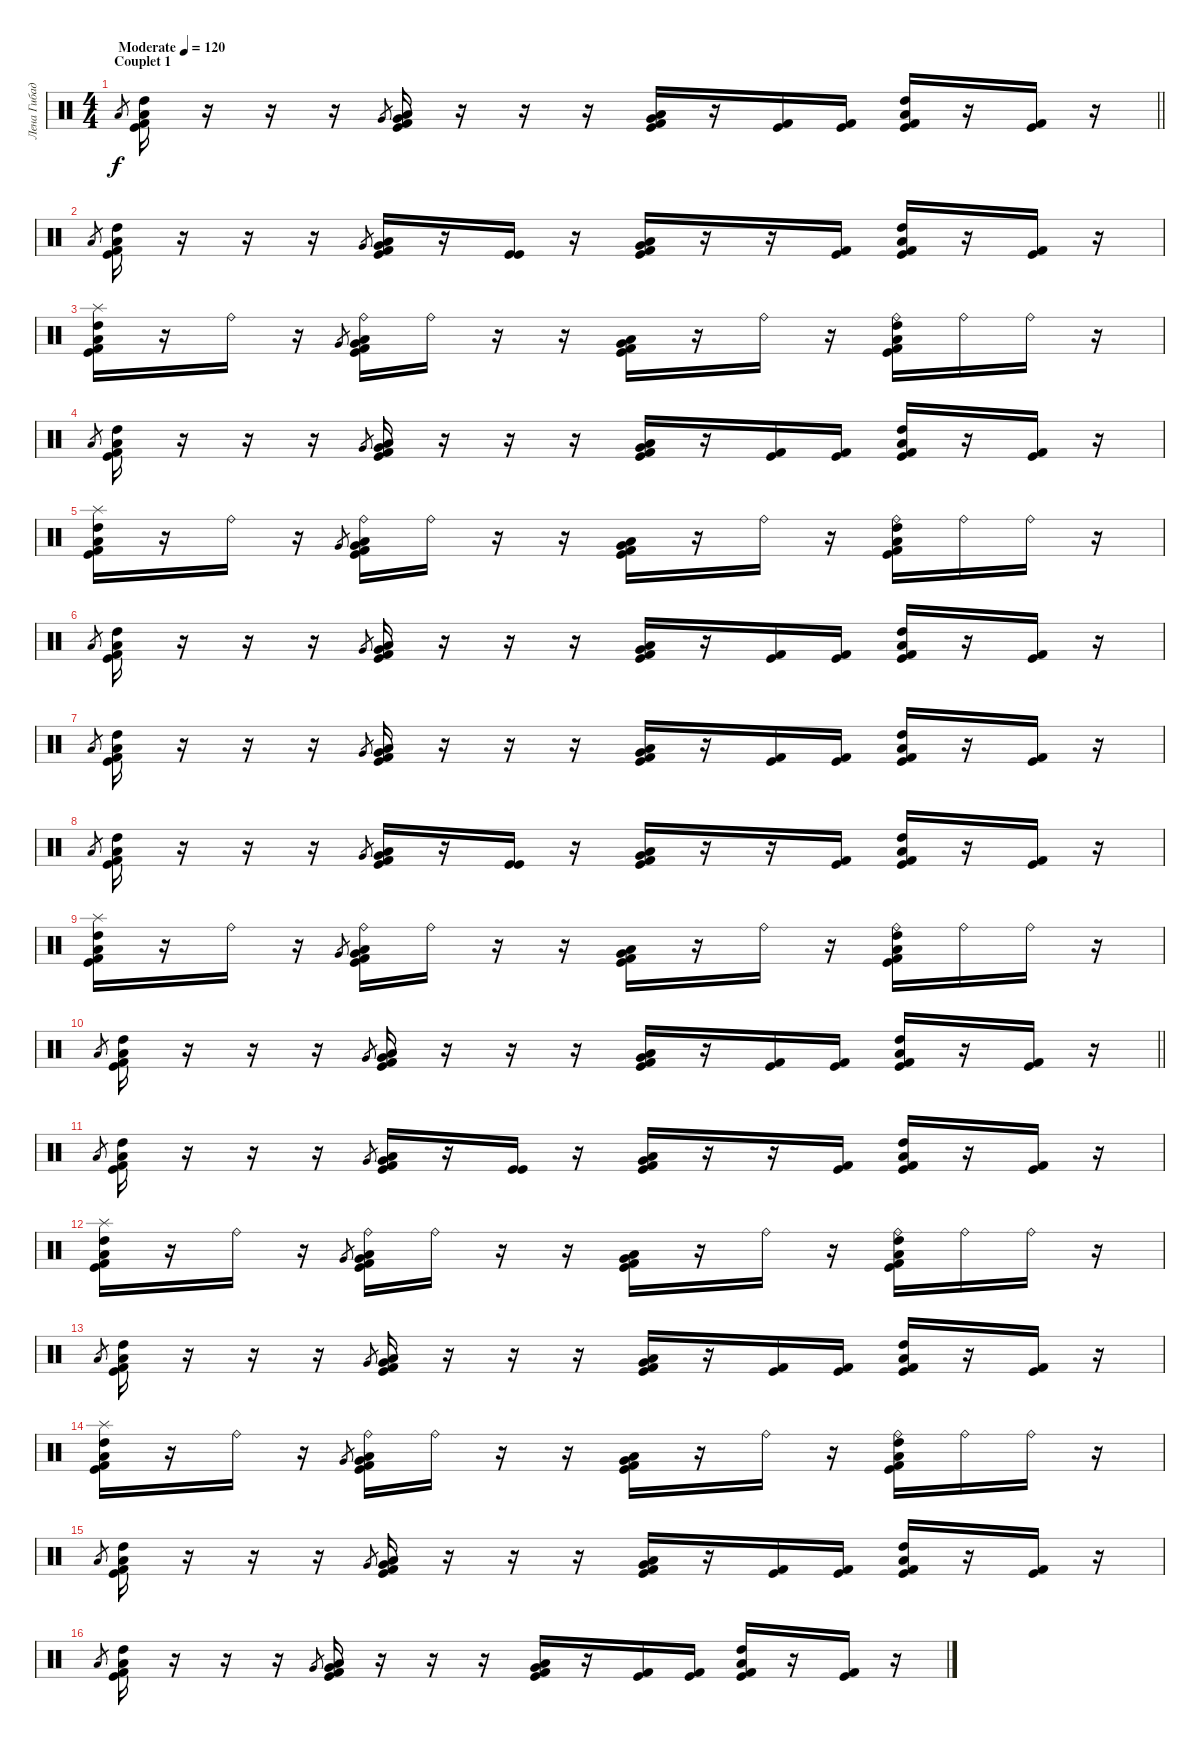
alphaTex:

\track ("Лена Гибадулина" "Лена Гибад") {instrument percussion}
\staff {score}
\articulation defaults
\ts (4 4)
\section ("" "Couplet 1")
\tempo (120 "Moderate")
\clef neutral
\barLineRight lightlight
\ks c "Low Tom (hit)".8{gr dy f}
("Kick (hit)" "Kick (hit) 2" "High Tom (hit)" "Low Tom (hit)").16 r.16 r.16 r.16 "Very Low Tom (hit)".8{gr} ("Kick (hit)" "Kick (hit) 2" "Very Low Tom (hit)" "Low Tom (hit)").16 r.16 r.16 r.16 ("Kick (hit)" "Kick (hit) 2" "Low Floor Tom (hit)" "Very Low Tom (hit)").16 r.16 ("Kick (hit)" "Kick (hit) 2").16 ("Kick (hit)" "Kick (hit) 2").16 ("Kick (hit)" "Kick (hit) 2" "Low Tom (hit)" "High Tom (hit)").16 r.16 ("Kick (hit)" "Kick (hit) 2").16 r.16 |
"Low Tom (hit)".8{gr} ("Kick (hit)" "Kick (hit) 2" "High Tom (hit)" "Low Tom (hit)").16 r.16 r.16 r.16 "Very Low Tom (hit)".8{gr} ("Kick (hit)" "Kick (hit) 2" "Very Low Tom (hit)" "Low Tom (hit)").16 r.16 ("Kick (hit)" "Kick (hit)").16 r.16 ("Kick (hit)" "Kick (hit) 2" "Low Floor Tom (hit)" "Very Low Tom (hit)").16 r.16 r.16 ("Kick (hit) 2" "Kick (hit)").16 ("Kick (hit)" "Kick (hit) 2" "Low Tom (hit)" "High Tom (hit)").16 r.16 ("Kick (hit)" "Kick (hit) 2").16 r.16 |
("Splash (hit)" "Kick (hit)" "Kick (hit) 2" "High Tom (hit)" "Low Tom (hit)").16 r.16 "Ride (bell)".16 r.16 "Very Low Tom (hit)".8{gr} ("Ride (bell)" "Kick (hit)" "Kick (hit) 2" "Very Low Tom (hit)" "Low Tom (hit)").16 "Ride (bell)".16 r.16 r.16 ("Kick (hit)" "Kick (hit) 2" "Low Floor Tom (hit)" "Very Low Tom (hit)").16 r.16 "Ride (bell)".16 r.16 ("Ride (bell)" "Kick (hit)" "Kick (hit) 2" "Low Tom (hit)" "High Tom (hit)").16 "Ride (bell)".16 "Ride (bell)".16 r.16 |
"Low Tom (hit)".8{gr} ("Kick (hit)" "Kick (hit) 2" "High Tom (hit)" "Low Tom (hit)").16 r.16 r.16 r.16 "Very Low Tom (hit)".8{gr} ("Kick (hit)" "Kick (hit) 2" "Very Low Tom (hit)" "Low Tom (hit)").16 r.16 r.16 r.16 ("Kick (hit)" "Kick (hit) 2" "Low Floor Tom (hit)" "Very Low Tom (hit)").16 r.16 ("Kick (hit)" "Kick (hit) 2").16 ("Kick (hit)" "Kick (hit) 2").16 ("Kick (hit)" "Kick (hit) 2" "Low Tom (hit)" "High Tom (hit)").16 r.16 ("Kick (hit)" "Kick (hit) 2").16 r.16 |
("Splash (hit)" "Kick (hit)" "Kick (hit) 2" "High Tom (hit)" "Low Tom (hit)").16 r.16 "Ride (bell)".16 r.16 "Very Low Tom (hit)".8{gr} ("Ride (bell)" "Kick (hit)" "Kick (hit) 2" "Very Low Tom (hit)" "Low Tom (hit)").16 "Ride (bell)".16 r.16 r.16 ("Kick (hit)" "Kick (hit) 2" "Low Floor Tom (hit)" "Very Low Tom (hit)").16 r.16 "Ride (bell)".16 r.16 ("Ride (bell)" "Kick (hit)" "Kick (hit) 2" "Low Tom (hit)" "High Tom (hit)").16 "Ride (bell)".16 "Ride (bell)".16 r.16 |
"Low Tom (hit)".8{gr} ("Kick (hit)" "Kick (hit) 2" "High Tom (hit)" "Low Tom (hit)").16 r.16 r.16 r.16 "Very Low Tom (hit)".8{gr} ("Kick (hit)" "Kick (hit) 2" "Very Low Tom (hit)" "Low Tom (hit)").16 r.16 r.16 r.16 ("Kick (hit)" "Kick (hit) 2" "Low Floor Tom (hit)" "Very Low Tom (hit)").16 r.16 ("Kick (hit)" "Kick (hit) 2").16 ("Kick (hit)" "Kick (hit) 2").16 ("Kick (hit)" "Kick (hit) 2" "Low Tom (hit)" "High Tom (hit)").16 r.16 ("Kick (hit)" "Kick (hit) 2").16 r.16 |
"Low Tom (hit)".8{gr} ("Kick (hit)" "Kick (hit) 2" "High Tom (hit)" "Low Tom (hit)").16 r.16 r.16 r.16 "Very Low Tom (hit)".8{gr} ("Kick (hit)" "Kick (hit) 2" "Very Low Tom (hit)" "Low Tom (hit)").16 r.16 r.16 r.16 ("Kick (hit)" "Kick (hit) 2" "Low Floor Tom (hit)" "Very Low Tom (hit)").16 r.16 ("Kick (hit)" "Kick (hit) 2").16 ("Kick (hit)" "Kick (hit) 2").16 ("Kick (hit)" "Kick (hit) 2" "Low Tom (hit)" "High Tom (hit)").16 r.16 ("Kick (hit)" "Kick (hit) 2").16 r.16 |
"Low Tom (hit)".8{gr} ("Kick (hit)" "Kick (hit) 2" "High Tom (hit)" "Low Tom (hit)").16 r.16 r.16 r.16 "Very Low Tom (hit)".8{gr} ("Kick (hit)" "Kick (hit) 2" "Very Low Tom (hit)" "Low Tom (hit)").16 r.16 ("Kick (hit)" "Kick (hit)").16 r.16 ("Kick (hit)" "Kick (hit) 2" "Low Floor Tom (hit)" "Very Low Tom (hit)").16 r.16 r.16 ("Kick (hit) 2" "Kick (hit)").16 ("Kick (hit)" "Kick (hit) 2" "Low Tom (hit)" "High Tom (hit)").16 r.16 ("Kick (hit)" "Kick (hit) 2").16 r.16 |
("Splash (hit)" "Kick (hit)" "Kick (hit) 2" "High Tom (hit)" "Low Tom (hit)").16 r.16 "Ride (bell)".16 r.16 "Very Low Tom (hit)".8{gr} ("Ride (bell)" "Kick (hit)" "Kick (hit) 2" "Very Low Tom (hit)" "Low Tom (hit)").16 "Ride (bell)".16 r.16 r.16 ("Kick (hit)" "Kick (hit) 2" "Low Floor Tom (hit)" "Very Low Tom (hit)").16 r.16 "Ride (bell)".16 r.16 ("Ride (bell)" "Kick (hit)" "Kick (hit) 2" "Low Tom (hit)" "High Tom (hit)").16 "Ride (bell)".16 "Ride (bell)".16 r.16 |
\barLineRight lightlight "Low Tom (hit)".8{gr}
("Kick (hit)" "Kick (hit) 2" "High Tom (hit)" "Low Tom (hit)").16 r.16 r.16 r.16 "Very Low Tom (hit)".8{gr} ("Kick (hit)" "Kick (hit) 2" "Very Low Tom (hit)" "Low Tom (hit)").16 r.16 r.16 r.16 ("Kick (hit)" "Kick (hit) 2" "Low Floor Tom (hit)" "Very Low Tom (hit)").16 r.16 ("Kick (hit)" "Kick (hit) 2").16 ("Kick (hit)" "Kick (hit) 2").16 ("Kick (hit)" "Kick (hit) 2" "Low Tom (hit)" "High Tom (hit)").16 r.16 ("Kick (hit)" "Kick (hit) 2").16 r.16 |
"Low Tom (hit)".8{gr} ("Kick (hit)" "Kick (hit) 2" "High Tom (hit)" "Low Tom (hit)").16 r.16 r.16 r.16 "Very Low Tom (hit)".8{gr} ("Kick (hit)" "Kick (hit) 2" "Very Low Tom (hit)" "Low Tom (hit)").16 r.16 ("Kick (hit)" "Kick (hit)").16 r.16 ("Kick (hit)" "Kick (hit) 2" "Low Floor Tom (hit)" "Very Low Tom (hit)").16 r.16 r.16 ("Kick (hit) 2" "Kick (hit)").16 ("Kick (hit)" "Kick (hit) 2" "Low Tom (hit)" "High Tom (hit)").16 r.16 ("Kick (hit)" "Kick (hit) 2").16 r.16 |
("Splash (hit)" "Kick (hit)" "Kick (hit) 2" "High Tom (hit)" "Low Tom (hit)").16 r.16 "Ride (bell)".16 r.16 "Very Low Tom (hit)".8{gr} ("Ride (bell)" "Kick (hit)" "Kick (hit) 2" "Very Low Tom (hit)" "Low Tom (hit)").16 "Ride (bell)".16 r.16 r.16 ("Kick (hit)" "Kick (hit) 2" "Low Floor Tom (hit)" "Very Low Tom (hit)").16 r.16 "Ride (bell)".16 r.16 ("Ride (bell)" "Kick (hit)" "Kick (hit) 2" "Low Tom (hit)" "High Tom (hit)").16 "Ride (bell)".16 "Ride (bell)".16 r.16 |
"Low Tom (hit)".8{gr} ("Kick (hit)" "Kick (hit) 2" "High Tom (hit)" "Low Tom (hit)").16 r.16 r.16 r.16 "Very Low Tom (hit)".8{gr} ("Kick (hit)" "Kick (hit) 2" "Very Low Tom (hit)" "Low Tom (hit)").16 r.16 r.16 r.16 ("Kick (hit)" "Kick (hit) 2" "Low Floor Tom (hit)" "Very Low Tom (hit)").16 r.16 ("Kick (hit)" "Kick (hit) 2").16 ("Kick (hit)" "Kick (hit) 2").16 ("Kick (hit)" "Kick (hit) 2" "Low Tom (hit)" "High Tom (hit)").16 r.16 ("Kick (hit)" "Kick (hit) 2").16 r.16 |
("Splash (hit)" "Kick (hit)" "Kick (hit) 2" "High Tom (hit)" "Low Tom (hit)").16 r.16 "Ride (bell)".16 r.16 "Very Low Tom (hit)".8{gr} ("Ride (bell)" "Kick (hit)" "Kick (hit) 2" "Very Low Tom (hit)" "Low Tom (hit)").16 "Ride (bell)".16 r.16 r.16 ("Kick (hit)" "Kick (hit) 2" "Low Floor Tom (hit)" "Very Low Tom (hit)").16 r.16 "Ride (bell)".16 r.16 ("Ride (bell)" "Kick (hit)" "Kick (hit) 2" "Low Tom (hit)" "High Tom (hit)").16 "Ride (bell)".16 "Ride (bell)".16 r.16 |
"Low Tom (hit)".8{gr} ("Kick (hit)" "Kick (hit) 2" "High Tom (hit)" "Low Tom (hit)").16 r.16 r.16 r.16 "Very Low Tom (hit)".8{gr} ("Kick (hit)" "Kick (hit) 2" "Very Low Tom (hit)" "Low Tom (hit)").16 r.16 r.16 r.16 ("Kick (hit)" "Kick (hit) 2" "Low Floor Tom (hit)" "Very Low Tom (hit)").16 r.16 ("Kick (hit)" "Kick (hit) 2").16 ("Kick (hit)" "Kick (hit) 2").16 ("Kick (hit)" "Kick (hit) 2" "Low Tom (hit)" "High Tom (hit)").16 r.16 ("Kick (hit)" "Kick (hit) 2").16 r.16 |
"Low Tom (hit)".8{gr} ("Kick (hit)" "Kick (hit) 2" "High Tom (hit)" "Low Tom (hit)").16 r.16 r.16 r.16 "Very Low Tom (hit)".8{gr} ("Kick (hit)" "Kick (hit) 2" "Very Low Tom (hit)" "Low Tom (hit)").16 r.16 r.16 r.16 ("Kick (hit)" "Kick (hit) 2" "Low Floor Tom (hit)" "Very Low Tom (hit)").16 r.16 ("Kick (hit)" "Kick (hit) 2").16 ("Kick (hit)" "Kick (hit) 2").16 ("Kick (hit)" "Kick (hit) 2" "Low Tom (hit)" "High Tom (hit)").16 r.16 ("Kick (hit)" "Kick (hit) 2").16 r.16
